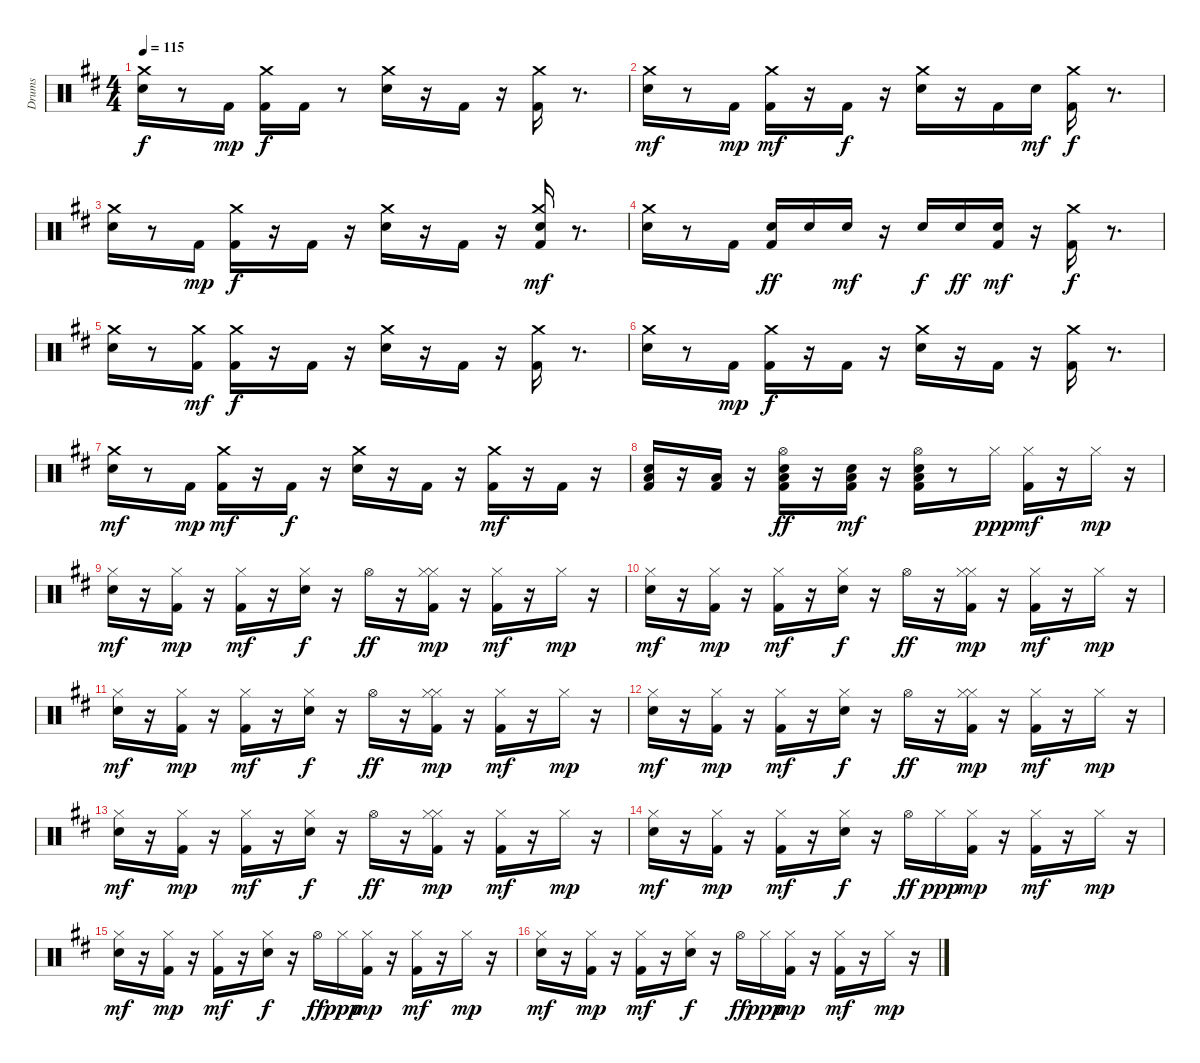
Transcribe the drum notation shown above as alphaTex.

\track ("Drums" "Drums") {instrument percussion}
\staff {score}
\articulation defaults
\ts (4 4)
\tempo 115
\clef neutral
\ks d
("Snare (hit) 2" "Crash medium (hit)").16{dy f} r.8 "Kick (hit) 2".16{dy mp} ("Kick (hit) 2" "Crash medium (hit)").16{dy f} "Kick (hit) 2".16 r.8 ("Crash medium (hit)" "Snare (hit) 2").16 r.16 "Kick (hit) 2".16 r.16 ("Kick (hit) 2" "Crash medium (hit)").16 r.8{d} |
("Crash medium (hit)" "Snare (hit) 2").16{dy mf} r.8 "Kick (hit) 2".16{dy mp} ("Kick (hit) 2" "Crash medium (hit)").16{dy mf} r.16 "Kick (hit) 2".16{dy f} r.16 ("Crash medium (hit)" "Snare (hit) 2").16 r.16 "Kick (hit) 2".16 "Snare (hit) 2".16{dy mf} ("Kick (hit) 2" "Crash medium (hit)").16{dy f} r.8{d} |
("Crash medium (hit)" "Snare (hit) 2").16 r.8 "Kick (hit) 2".16{dy mp} ("Kick (hit) 2" "Crash medium (hit)").16{dy f} r.16 "Kick (hit) 2".16 r.16 ("Crash medium (hit)" "Snare (hit) 2").16 r.16 "Kick (hit) 2".16 r.16 ("Kick (hit) 2" "Crash medium (hit)" "Snare (hit) 2").16{dy mf} r.8{d} |
("Crash medium (hit)" "Snare (hit) 2").16 r.8 "Kick (hit) 2".16 ("Kick (hit) 2" "Snare (hit) 2").16{dy ff} "Snare (hit) 2".16 "Snare (hit) 2".16{dy mf} r.16 "Snare (hit) 2".16{dy f} "Snare (hit) 2".16{dy ff} ("Kick (hit) 2" "Snare (hit) 2").16{dy mf} r.16 ("Kick (hit) 2" "Crash medium (hit)").16{dy f} r.8{d} |
("Crash medium (hit)" "Snare (hit) 2").16 r.8 ("Kick (hit) 2" "Crash medium (hit)").16{dy mf} ("Kick (hit) 2" "Crash medium (hit)").16{dy f} r.16 "Kick (hit) 2".16 r.16 ("Crash medium (hit)" "Snare (hit) 2").16 r.16 "Kick (hit) 2".16 r.16 ("Kick (hit) 2" "Crash medium (hit)").16 r.8{d} |
("Crash medium (hit)" "Snare (hit) 2").16 r.8 "Kick (hit) 2".16{dy mp} ("Kick (hit) 2" "Crash medium (hit)").16{dy f} r.16 "Kick (hit) 2".16 r.16 ("Crash medium (hit)" "Snare (hit) 2").16 r.16 "Kick (hit) 2".16 r.16 ("Kick (hit) 2" "Crash medium (hit)").16 r.8{d} |
("Crash medium (hit)" "Snare (hit) 2").16{dy mf} r.8 "Kick (hit) 2".16{dy mp} ("Kick (hit) 2" "Crash medium (hit)").16{dy mf} r.16 "Kick (hit) 2".16{dy f} r.16 ("Crash medium (hit)" "Snare (hit) 2").16 r.16 "Kick (hit) 2".16 r.16 ("Kick (hit) 2" "Crash medium (hit)").16{dy mf} r.16 "Kick (hit) 2".16 r.16 |
("Snare (hit) 2" "Kick (hit) 2" "Low Floor Tom (hit)").16 r.16 ("Low Floor Tom (hit)" "Kick (hit) 2").16 r.16 ("Kick (hit) 2" "Snare (hit) 2" "Low Floor Tom (hit)" "Hi-Hat (open)").16{dy ff} r.16 ("Low Floor Tom (hit)" "Snare (hit) 2" "Kick (hit) 2").16{dy mf} r.16 ("Kick (hit) 2" "Snare (hit) 2" "Low Floor Tom (hit)" "Hi-Hat (open)").16 r.8 "Hi-Hat (closed)".16{dy ppp} ("Kick (hit) 2" "Hi-Hat (closed)").16{dy mf} r.16 "Hi-Hat (closed)".16{dy mp} r.16 |
("Hi-Hat (closed)" "Snare (hit) 2").16{dy mf} r.16 ("Kick (hit) 2" "Hi-Hat (closed)").16{dy mp} r.16 ("Kick (hit) 2" "Hi-Hat (closed)").16{dy mf} r.16 ("Snare (hit) 2" "Hi-Hat (closed)").16{dy f} r.16 "Hi-Hat (open)".16{dy ff} r.16 ("Hi-Hat (closed)" "Kick (hit) 2" "Hi-Hat (closed)").16{dy mp} r.16 ("Kick (hit) 2" "Hi-Hat (closed)").16{dy mf} r.16 "Hi-Hat (closed)".16{dy mp} r.16 |
("Hi-Hat (closed)" "Snare (hit) 2").16{dy mf} r.16 ("Kick (hit) 2" "Hi-Hat (closed)").16{dy mp} r.16 ("Kick (hit) 2" "Hi-Hat (closed)").16{dy mf} r.16 ("Hi-Hat (closed)" "Snare (hit) 2").16{dy f} r.16 "Hi-Hat (open)".16{dy ff} r.16 ("Hi-Hat (closed)" "Kick (hit) 2" "Hi-Hat (closed)").16{dy mp} r.16 ("Kick (hit) 2" "Hi-Hat (closed)").16{dy mf} r.16 "Hi-Hat (closed)".16{dy mp} r.16 |
("Hi-Hat (closed)" "Snare (hit) 2").16{dy mf} r.16 ("Kick (hit) 2" "Hi-Hat (closed)").16{dy mp} r.16 ("Kick (hit) 2" "Hi-Hat (closed)").16{dy mf} r.16 ("Snare (hit) 2" "Hi-Hat (closed)").16{dy f} r.16 "Hi-Hat (open)".16{dy ff} r.16 ("Hi-Hat (closed)" "Kick (hit) 2" "Hi-Hat (closed)").16{dy mp} r.16 ("Kick (hit) 2" "Hi-Hat (closed)").16{dy mf} r.16 "Hi-Hat (closed)".16{dy mp} r.16 |
("Hi-Hat (closed)" "Snare (hit) 2").16{dy mf} r.16 ("Kick (hit) 2" "Hi-Hat (closed)").16{dy mp} r.16 ("Kick (hit) 2" "Hi-Hat (closed)").16{dy mf} r.16 ("Hi-Hat (closed)" "Snare (hit) 2").16{dy f} r.16 "Hi-Hat (open)".16{dy ff} r.16 ("Hi-Hat (closed)" "Kick (hit) 2" "Hi-Hat (closed)").16{dy mp} r.16 ("Kick (hit) 2" "Hi-Hat (closed)").16{dy mf} r.16 "Hi-Hat (closed)".16{dy mp} r.16 |
("Hi-Hat (closed)" "Snare (hit) 2").16{dy mf} r.16 ("Kick (hit) 2" "Hi-Hat (closed)").16{dy mp} r.16 ("Kick (hit) 2" "Hi-Hat (closed)").16{dy mf} r.16 ("Hi-Hat (closed)" "Snare (hit) 2").16{dy f} r.16 "Hi-Hat (open)".16{dy ff} r.16 ("Hi-Hat (closed)" "Kick (hit) 2" "Hi-Hat (closed)").16{dy mp} r.16 ("Kick (hit) 2" "Hi-Hat (closed)").16{dy mf} r.16 "Hi-Hat (closed)".16{dy mp} r.16 |
("Hi-Hat (closed)" "Snare (hit) 2").16{dy mf} r.16 ("Kick (hit) 2" "Hi-Hat (closed)").16{dy mp} r.16 ("Kick (hit) 2" "Hi-Hat (closed)").16{dy mf} r.16 ("Hi-Hat (closed)" "Snare (hit) 2").16{dy f} r.16 "Hi-Hat (open)".16{dy ff} "Hi-Hat (closed)".16{dy ppp} ("Kick (hit) 2" "Hi-Hat (closed)").16{dy mp} r.16 ("Kick (hit) 2" "Hi-Hat (closed)").16{dy mf} r.16 "Hi-Hat (closed)".16{dy mp} r.16 |
("Hi-Hat (closed)" "Snare (hit) 2").16{dy mf} r.16 ("Kick (hit) 2" "Hi-Hat (closed)").16{dy mp} r.16 ("Kick (hit) 2" "Hi-Hat (closed)").16{dy mf} r.16 ("Hi-Hat (closed)" "Snare (hit) 2").16{dy f} r.16 "Hi-Hat (open)".16{dy ff} "Hi-Hat (closed)".16{dy ppp} ("Kick (hit) 2" "Hi-Hat (closed)").16{dy mp} r.16 ("Kick (hit) 2" "Hi-Hat (closed)").16{dy mf} r.16 "Hi-Hat (closed)".16{dy mp} r.16 |
("Hi-Hat (closed)" "Snare (hit) 2").16{dy mf} r.16 ("Kick (hit) 2" "Hi-Hat (closed)").16{dy mp} r.16 ("Kick (hit) 2" "Hi-Hat (closed)").16{dy mf} r.16 ("Hi-Hat (closed)" "Snare (hit) 2").16{dy f} r.16 "Hi-Hat (open)".16{dy ff} "Hi-Hat (closed)".16{dy ppp} ("Kick (hit) 2" "Hi-Hat (closed)").16{dy mp} r.16 ("Kick (hit) 2" "Hi-Hat (closed)").16{dy mf} r.16 "Hi-Hat (closed)".16{dy mp} r.16
